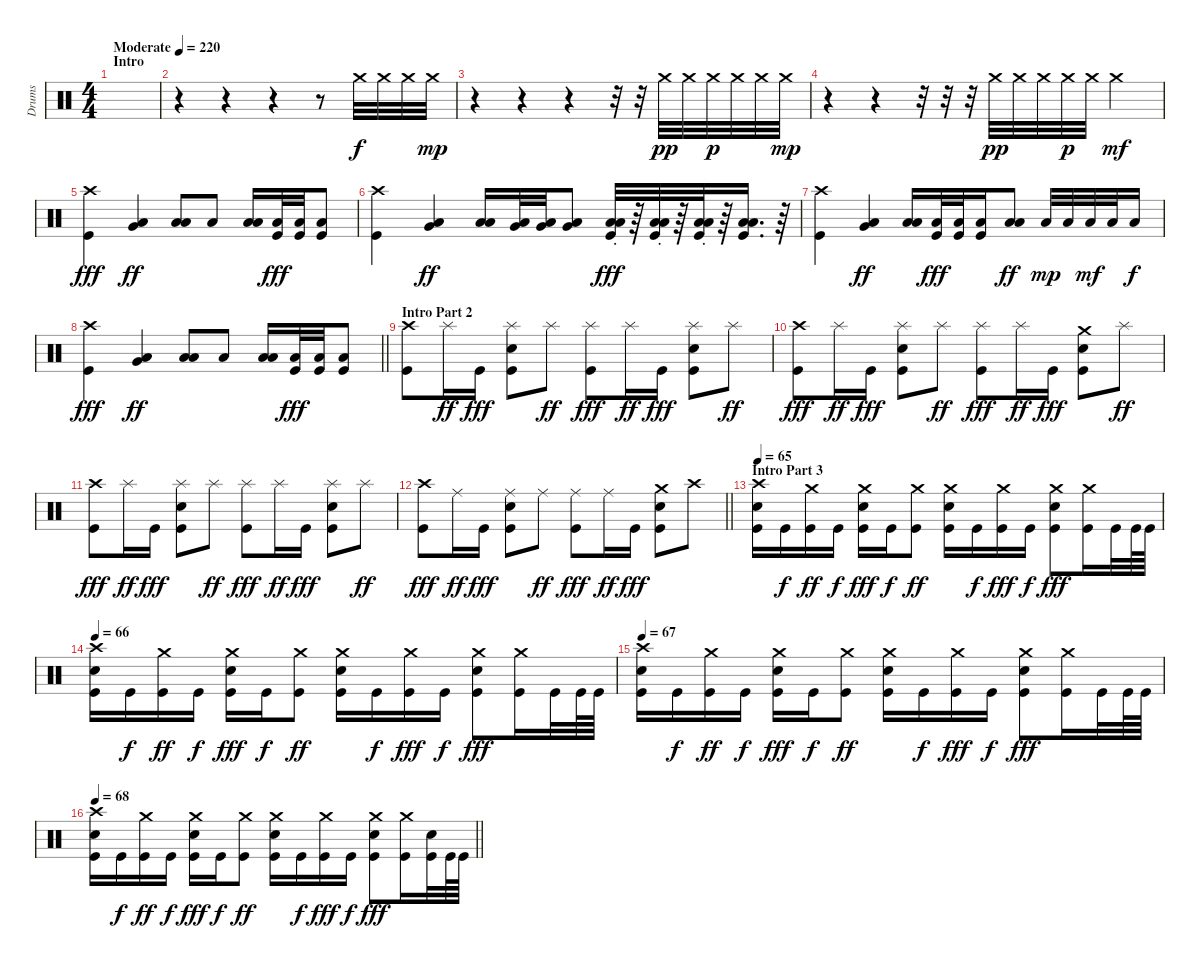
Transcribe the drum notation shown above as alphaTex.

\track ("Drums" "Drums") {instrument percussion}
\staff {score}
\articulation defaults
\ts (4 4)
\section ("" "Intro")
\tempo (220 "Moderate")
\tempo 55
\tempo (220 "Moderate")
\clef neutral
\ks c
|
r.4 r.4 r.4 r.8 "Crash medium (hit)".32 "Crash medium (hit)".32 "Crash medium (hit)".32 "Crash medium (hit)".32{dy mp} |
r.4 r.4 r.4 r.32 r.32 "Crash medium (hit)".32{dy pp} "Crash medium (hit)".32 "Crash medium (hit)".32{dy p} "Crash medium (hit)".32 "Crash medium (hit)".32 "Crash medium (hit)".32{dy mp} |
r.4 r.4 r.32 r.32 r.32 "Crash medium (hit)".32{dy pp} "Crash medium (hit)".32 "Crash medium (hit)".32 "Crash medium (hit)".32{dy p} "Crash medium (hit)".32 "Crash medium (hit)".4{dy mf} |
("Crash high (hit)" "Kick (hit)").4{dy fff} ("Low Tom (hit)" "Very Low Tom (hit)").4{dy ff} ("Low Tom (hit)" "Low Floor Tom (hit)").8 "Low Tom (hit)".8 ("Low Tom (hit)" "Low Floor Tom (hit)").16 ("Low Tom (hit)" "Kick (hit)").32{dy fff} ("Low Tom (hit)" "Kick (hit)").32 ("Low Tom (hit)" "Kick (hit)").8 |
("Crash high (hit)" "Kick (hit)").4 ("Low Tom (hit)" "Very Low Tom (hit)").4{dy ff} ("Low Tom (hit)" "Low Floor Tom (hit)").16 ("Low Tom (hit)" "Very Low Tom (hit)").32 ("Low Tom (hit)" "Very Low Tom (hit)").32 ("Low Tom (hit)" "Very Low Tom (hit)").8 ("Low Tom (hit)"{st} "Low Floor Tom (hit)"{st} "Kick (hit)"{st}).32{dy fff} r.64 ("Low Tom (hit)"{st} "Low Floor Tom (hit)"{st} "Kick (hit)"{st}).32 r.64 ("Low Tom (hit)"{st} "Low Floor Tom (hit)"{st} "Kick (hit)"{st}).32 r.64 ("Low Tom (hit)" "Low Floor Tom (hit)" "Kick (hit)").16{d} r.64 |
("Crash high (hit)" "Kick (hit)").4 ("Low Tom (hit)" "Very Low Tom (hit)").4{dy ff} ("Low Tom (hit)" "Low Floor Tom (hit)").16 ("Low Tom (hit)" "Kick (hit)").32{dy fff} ("Low Tom (hit)" "Kick (hit)").32 ("Low Tom (hit)" "Kick (hit)").16 ("Low Tom (hit)" "Low Floor Tom (hit)").8{dy ff} "Low Tom (hit)".32{dy mp} "Low Tom (hit)".32 "Low Tom (hit)".32{dy mf} "Low Tom (hit)".32 "Low Tom (hit)".16{dy f} |
\barLineRight lightlight
("Crash high (hit)" "Kick (hit)").4{dy fff} ("Low Tom (hit)" "Very Low Tom (hit)").4{dy ff} ("Low Tom (hit)" "Low Floor Tom (hit)").8 "Low Tom (hit)".8 ("Low Tom (hit)" "Low Floor Tom (hit)").16 ("Low Tom (hit)" "Kick (hit)").32{dy fff} ("Low Tom (hit)" "Kick (hit)").32 ("Low Tom (hit)" "Kick (hit)").8 |
\section ("" "Intro Part 2")
("Crash high (hit)" "Kick (hit)").8 "Splash (hit)".16{dy ff} "Kick (hit)".16{dy fff} ("Splash (hit)" "Electric Snare (hit)" "Kick (hit)").8 "Splash (hit)".8{dy ff} ("Splash (hit)" "Kick (hit)").8{dy fff} "Splash (hit)".16{dy ff} "Kick (hit)".16{dy fff} ("Splash (hit)" "Electric Snare (hit)" "Kick (hit)").8 "Splash (hit)".8{dy ff} |
("Crash high (hit)" "Kick (hit)").8{dy fff} "Splash (hit)".16{dy ff} "Kick (hit)".16{dy fff} ("Splash (hit)" "Electric Snare (hit)" "Kick (hit)").8 "Splash (hit)".8{dy ff} ("Splash (hit)" "Kick (hit)").8{dy fff} "Splash (hit)".16{dy ff} "Kick (hit)".16{dy fff} ("Crash medium (hit)" "Electric Snare (hit)" "Kick (hit)").8 "Splash (hit)".8{dy ff} |
("Crash high (hit)" "Kick (hit)").8{dy fff} "Splash (hit)".16{dy ff} "Kick (hit)".16{dy fff} ("Splash (hit)" "Electric Snare (hit)" "Kick (hit)").8 "Splash (hit)".8{dy ff} ("Splash (hit)" "Kick (hit)").8{dy fff} "Splash (hit)".16{dy ff} "Kick (hit)".16{dy fff} ("Splash (hit)" "Electric Snare (hit)" "Kick (hit)").8 "Splash (hit)".8{dy ff} |
\barLineRight lightlight
("Crash high (hit)" "Kick (hit)").8{dy fff} "Ride (middle)".16{dy ff} "Kick (hit)".16{dy fff} ("Ride (middle)" "Electric Snare (hit)" "Kick (hit)").8 "Ride (middle)".8{dy ff} ("Ride (middle)" "Kick (hit)").8{dy fff} "Ride (middle)".16{dy ff} "Kick (hit)".16{dy fff} ("Crash medium (hit)" "Electric Snare (hit)" "Kick (hit)").8 "Crash high (hit)".8 |
\section ("" "Intro Part 3")
\tempo 65
("Crash high (hit)" "Electric Snare (hit)" "Kick (hit)").16 "Kick (hit)".16{dy f} ("Crash medium (hit)" "Kick (hit)").16{dy ff} "Kick (hit)".16{dy f} ("Crash medium (hit)" "Electric Snare (hit)" "Kick (hit)").16{dy fff} "Kick (hit)".16{dy f} ("Crash medium (hit)" "Kick (hit)").8{dy ff} ("Crash medium (hit)" "Electric Snare (hit)" "Kick (hit)").16 "Kick (hit)".16{dy f} ("Crash medium (hit)" "Kick (hit)").16{dy fff} "Kick (hit)".16{dy f} ("Crash medium (hit)" "Electric Snare (hit)" "Kick (hit)").8{dy fff} ("Crash medium (hit)" "Kick (hit)").16 "Kick (hit)".32 "Kick (hit)".64 "Kick (hit)".64 |
\tempo 66
("Crash high (hit)" "Electric Snare (hit)" "Kick (hit)").16 "Kick (hit)".16{dy f} ("Crash medium (hit)" "Kick (hit)").16{dy ff} "Kick (hit)".16{dy f} ("Crash medium (hit)" "Electric Snare (hit)" "Kick (hit)").16{dy fff} "Kick (hit)".16{dy f} ("Crash medium (hit)" "Kick (hit)").8{dy ff} ("Crash medium (hit)" "Electric Snare (hit)" "Kick (hit)").16 "Kick (hit)".16{dy f} ("Crash medium (hit)" "Kick (hit)").16{dy fff} "Kick (hit)".16{dy f} ("Crash medium (hit)" "Electric Snare (hit)" "Kick (hit)").8{dy fff} ("Crash medium (hit)" "Kick (hit)").16 "Kick (hit)".32 "Kick (hit)".64 "Kick (hit)".64 |
\tempo 67
("Crash high (hit)" "Electric Snare (hit)" "Kick (hit)").16 "Kick (hit)".16{dy f} ("Crash medium (hit)" "Kick (hit)").16{dy ff} "Kick (hit)".16{dy f} ("Crash medium (hit)" "Electric Snare (hit)" "Kick (hit)").16{dy fff} "Kick (hit)".16{dy f} ("Crash medium (hit)" "Kick (hit)").8{dy ff} ("Crash medium (hit)" "Electric Snare (hit)" "Kick (hit)").16 "Kick (hit)".16{dy f} ("Crash medium (hit)" "Kick (hit)").16{dy fff} "Kick (hit)".16{dy f} ("Crash medium (hit)" "Electric Snare (hit)" "Kick (hit)").8{dy fff} ("Crash medium (hit)" "Kick (hit)").16 "Kick (hit)".32 "Kick (hit)".64 "Kick (hit)".64 |
\tempo 68
\barLineRight lightlight
("Crash high (hit)" "Electric Snare (hit)" "Kick (hit)").16 "Kick (hit)".16{dy f} ("Crash medium (hit)" "Kick (hit)").16{dy ff} "Kick (hit)".16{dy f} ("Crash medium (hit)" "Electric Snare (hit)" "Kick (hit)").16{dy fff} "Kick (hit)".16{dy f} ("Crash medium (hit)" "Kick (hit)").8{dy ff} ("Crash medium (hit)" "Electric Snare (hit)" "Kick (hit)").16 "Kick (hit)".16{dy f} ("Crash medium (hit)" "Kick (hit)").16{dy fff} "Kick (hit)".16{dy f} ("Crash medium (hit)" "Electric Snare (hit)" "Kick (hit)").8{dy fff} ("Crash medium (hit)" "Kick (hit)").16 ("Electric Snare (hit)" "Kick (hit)").32 "Kick (hit)".64 "Kick (hit)".64
